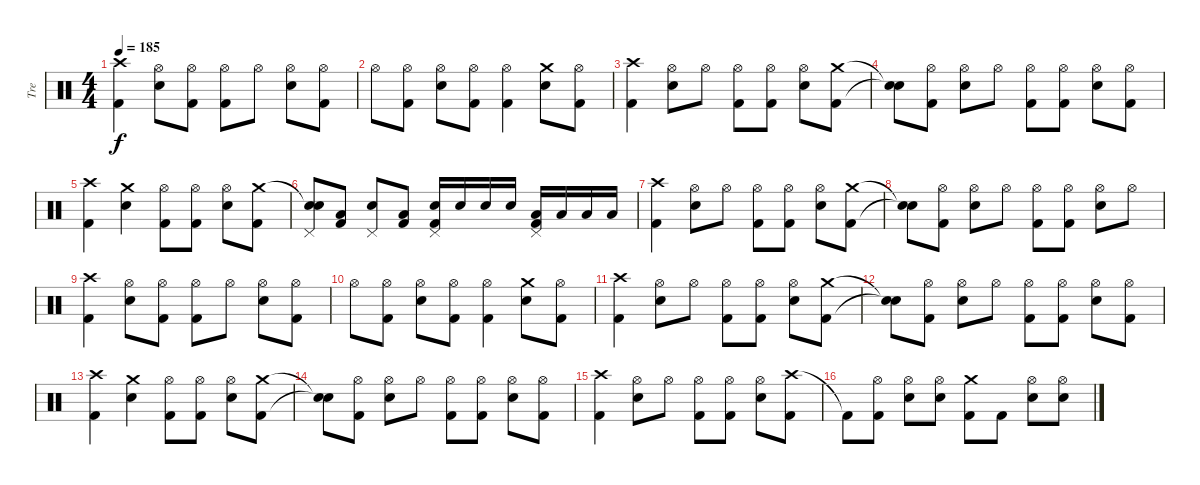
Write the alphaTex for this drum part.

\track ("Tre" "Tre") {instrument percussion}
\staff {score}
\articulation defaults
\ts (4 4)
\tempo 185
\clef neutral
\ks c
("Crash high (hit)" "Kick (hit) 2").4{dy f} ("Hi-Hat (open)" "Snare (hit) 2").8 ("Hi-Hat (open)" "Kick (hit) 2").8 ("Hi-Hat (open)" "Kick (hit) 2").8 "Hi-Hat (open)".8 ("Hi-Hat (open)" "Snare (hit) 2").8 ("Hi-Hat (open)" "Kick (hit) 2").8 |
"Hi-Hat (open)".8 ("Hi-Hat (open)" "Kick (hit) 2").8 ("Hi-Hat (open)" "Snare (hit) 2").8 ("Hi-Hat (open)" "Kick (hit) 2").8 ("Hi-Hat (open)" "Kick (hit) 2").4 ("Crash medium (hit)" "Snare (hit) 2").8 ("Hi-Hat (open)" "Kick (hit) 2").8 |
("Crash high (hit)" "Kick (hit) 2").4 ("Hi-Hat (open)" "Snare (hit) 2").8 "Hi-Hat (open)".8 ("Hi-Hat (open)" "Kick (hit) 2").8 ("Hi-Hat (open)" "Kick (hit) 2").8 ("Hi-Hat (open)" "Snare (hit) 2").8 ("Crash medium (hit)" "Kick (hit) 2").8 |
("Snare (hit)"{t} "Snare (hit)"{t}).8 ("Hi-Hat (open)" "Kick (hit) 2").8 ("Hi-Hat (open)" "Snare (hit) 2").8 "Hi-Hat (open)".8 ("Hi-Hat (open)" "Kick (hit) 2").8 ("Hi-Hat (open)" "Kick (hit) 2").8 ("Hi-Hat (open)" "Snare (hit) 2").8 ("Hi-Hat (open)" "Kick (hit) 2").8 |
("Crash high (hit)" "Kick (hit) 2").4 ("Crash medium (hit)" "Snare (hit) 2").4 ("Hi-Hat (open)" "Kick (hit) 2").8 ("Hi-Hat (open)" "Kick (hit) 2").8 ("Hi-Hat (open)" "Snare (hit) 2").8 ("Crash medium (hit)" "Kick (hit) 2").8 |
("Snare (hit)"{t} "Pedal Hi-Hat (hit)" "Snare (hit)").8 ("Low Tom (hit)" "Kick (hit) 2").8 ("Snare (hit) 2" "Pedal Hi-Hat (hit)").8 ("Low Tom (hit)" "Kick (hit) 2").8 ("Snare (hit) 2" "Pedal Hi-Hat (hit)" "Kick (hit) 2").16 "Snare (hit) 2".16 "Snare (hit) 2".16 "Snare (hit) 2".16 ("Low Tom (hit)" "Pedal Hi-Hat (hit)" "Kick (hit) 2").16 "Low Tom (hit)".16 "Low Tom (hit)".16 "Low Tom (hit)".16 |
("Crash high (hit)" "Kick (hit) 2").4 ("Hi-Hat (open)" "Snare (hit) 2").8 "Hi-Hat (open)".8 ("Hi-Hat (open)" "Kick (hit) 2").8 ("Hi-Hat (open)" "Kick (hit) 2").8 ("Hi-Hat (open)" "Snare (hit) 2").8 ("Crash medium (hit)" "Kick (hit) 2").8 |
("Snare (hit)"{t} "Snare (hit)"{t}).8 ("Hi-Hat (open)" "Kick (hit) 2").8 ("Hi-Hat (open)" "Snare (hit) 2").8 "Hi-Hat (open)".8 ("Hi-Hat (open)" "Kick (hit) 2").8 ("Hi-Hat (open)" "Kick (hit) 2").8 ("Hi-Hat (open)" "Snare (hit) 2").8 "Hi-Hat (open)".8 |
("Crash high (hit)" "Kick (hit) 2").4 ("Hi-Hat (open)" "Snare (hit) 2").8 ("Hi-Hat (open)" "Kick (hit) 2").8 ("Hi-Hat (open)" "Kick (hit) 2").8 "Hi-Hat (open)".8 ("Hi-Hat (open)" "Snare (hit) 2").8 ("Hi-Hat (open)" "Kick (hit) 2").8 |
"Hi-Hat (open)".8 ("Hi-Hat (open)" "Kick (hit) 2").8 ("Hi-Hat (open)" "Snare (hit) 2").8 ("Hi-Hat (open)" "Kick (hit) 2").8 ("Hi-Hat (open)" "Kick (hit) 2").4 ("Crash medium (hit)" "Snare (hit) 2").8 ("Hi-Hat (open)" "Kick (hit) 2").8 |
("Crash high (hit)" "Kick (hit) 2").4 ("Hi-Hat (open)" "Snare (hit) 2").8 "Hi-Hat (open)".8 ("Hi-Hat (open)" "Kick (hit) 2").8 ("Hi-Hat (open)" "Kick (hit) 2").8 ("Hi-Hat (open)" "Snare (hit) 2").8 ("Crash medium (hit)" "Kick (hit) 2").8 |
("Snare (hit)"{t} "Snare (hit)"{t}).8 ("Hi-Hat (open)" "Kick (hit) 2").8 ("Hi-Hat (open)" "Snare (hit) 2").8 "Hi-Hat (open)".8 ("Hi-Hat (open)" "Kick (hit) 2").8 ("Hi-Hat (open)" "Kick (hit) 2").8 ("Hi-Hat (open)" "Snare (hit) 2").8 ("Hi-Hat (open)" "Kick (hit) 2").8 |
("Crash high (hit)" "Kick (hit) 2").4 ("Crash medium (hit)" "Snare (hit) 2").4 ("Hi-Hat (open)" "Kick (hit) 2").8 ("Hi-Hat (open)" "Kick (hit) 2").8 ("Hi-Hat (open)" "Snare (hit) 2").8 ("Crash medium (hit)" "Kick (hit) 2").8 |
("Snare (hit)"{t} "Snare (hit)"{t}).8 ("Hi-Hat (open)" "Kick (hit) 2").8 ("Hi-Hat (open)" "Snare (hit) 2").8 "Hi-Hat (open)".8 ("Hi-Hat (open)" "Kick (hit) 2").8 ("Hi-Hat (open)" "Kick (hit) 2").8 ("Hi-Hat (open)" "Snare (hit) 2").8 ("Hi-Hat (open)" "Kick (hit) 2").8 |
("Crash high (hit)" "Kick (hit) 2").4 ("Hi-Hat (open)" "Snare (hit) 2").8 "Hi-Hat (open)".8 ("Hi-Hat (open)" "Kick (hit) 2").8 ("Hi-Hat (open)" "Kick (hit) 2").8 ("Hi-Hat (open)" "Snare (hit) 2").8 ("Crash high (hit)" "Kick (hit) 2").8 |
"Kick (hit) 2"{t}.8 ("Hi-Hat (open)" "Kick (hit) 2").8 ("Hi-Hat (open)" "Snare (hit) 2").8 ("Hi-Hat (open)" "Snare (hit) 2").8 ("Crash medium (hit)" "Kick (hit) 2").8 "Kick (hit) 2".8 ("Hi-Hat (open)" "Snare (hit) 2").8 ("Hi-Hat (open)" "Snare (hit) 2").8
